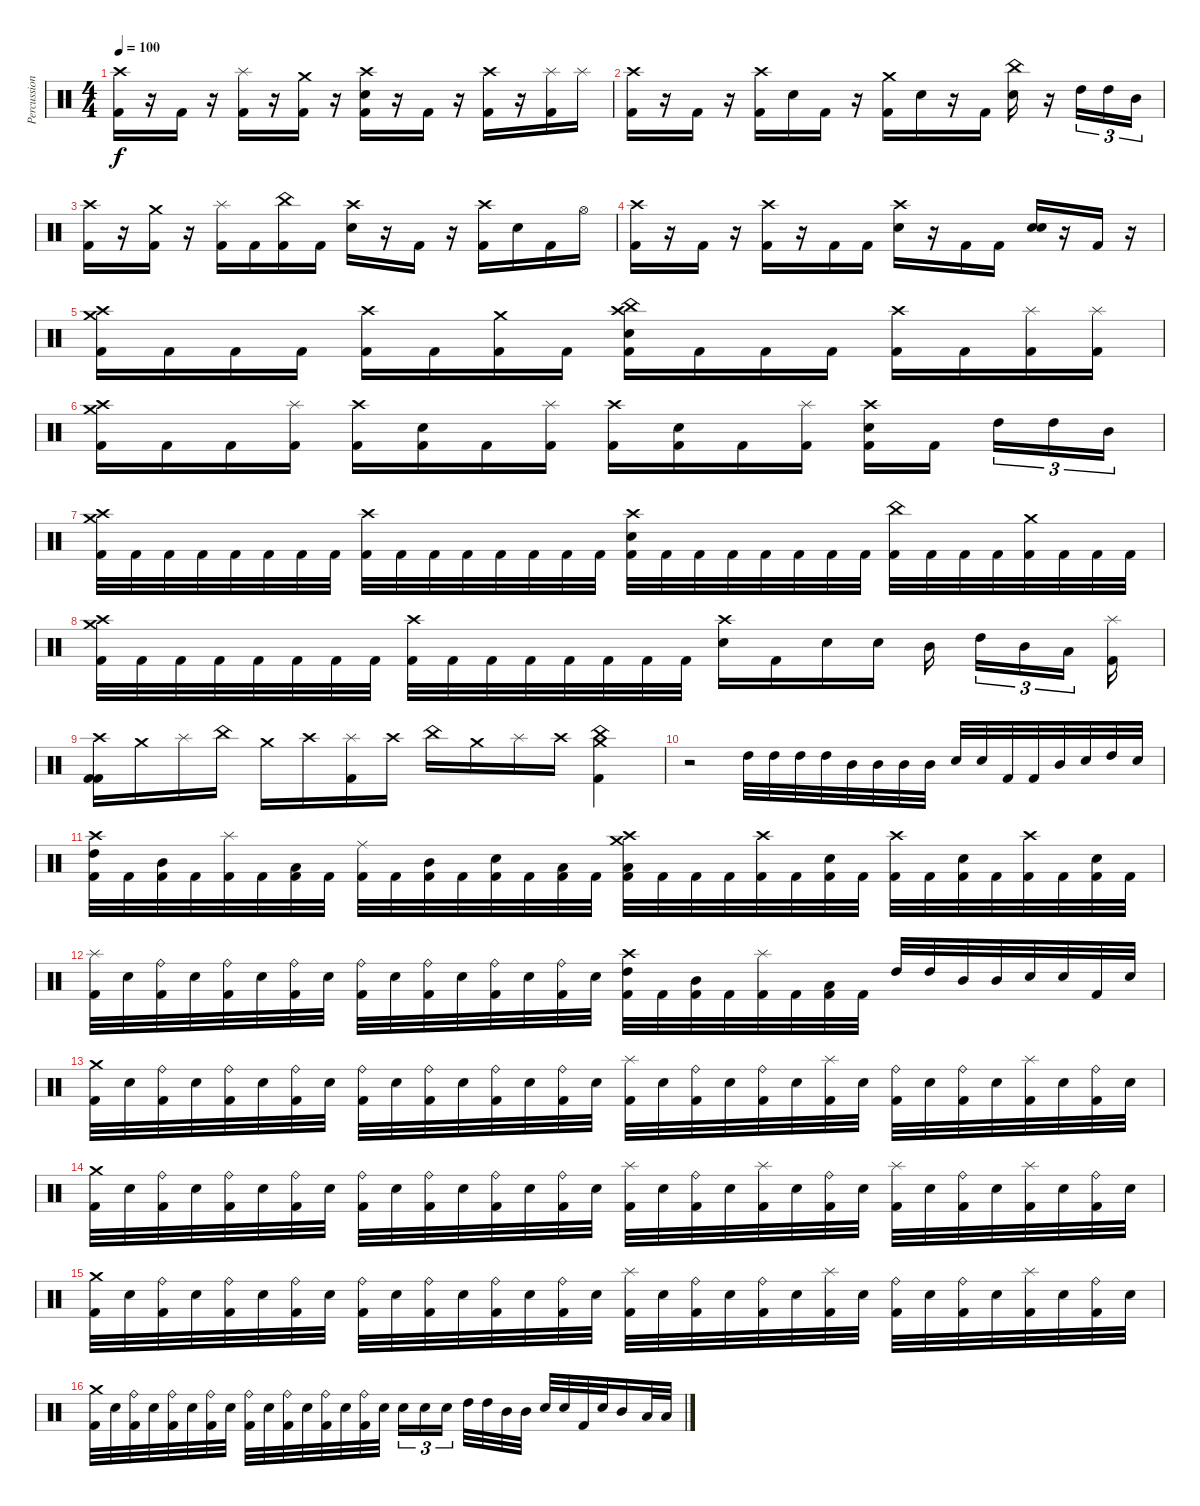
\track ("Percussion" "Percussion") {instrument percussion}
\staff {score}
\articulation defaults
\ts (4 4)
\tempo 100
\clef neutral
\ks c
("Crash high (hit)" "Kick (hit) 2").16{dy f} r.16 "Kick (hit) 2".16 r.16 ("Splash (hit)" "Kick (hit) 2").16 r.16 ("Crash medium (hit)" "Kick (hit) 2").16 r.16 ("Crash high (hit)" "Electric Snare (hit)" "Kick (hit) 2").16 r.16 "Kick (hit) 2".16 r.16 ("Crash high (hit)" "Kick (hit) 2").16 r.16 ("Splash (hit)" "Kick (hit) 2").16 "Splash (hit)".16 |
("Crash high (hit)" "Kick (hit) 2").16 r.16 "Kick (hit) 2".16 r.16 ("Crash high (hit)" "Kick (hit) 2").16 "Electric Snare (hit)".16 "Kick (hit) 2".16 r.16 ("Crash medium (hit)" "Kick (hit) 2").16 "Electric Snare (hit)".16 r.16 "Kick (hit) 2".16 ("China (hit)" "Electric Snare (hit)").16 r.16 "High Tom (hit)".16{tu (3 2)} "High Tom (hit)".16{tu (3 2)} "Mid Tom (hit)".16{tu (3 2)} |
("Crash high (hit)" "Kick (hit) 2").16 r.16 ("Crash medium (hit)" "Kick (hit) 2").16 r.16 ("Splash (hit)" "Kick (hit) 2").16 "Kick (hit) 2".16 ("China (hit)" "Kick (hit) 2").16 "Kick (hit) 2".16 ("Crash high (hit)" "Electric Snare (hit)").16 r.16 "Kick (hit) 2".16 r.16 ("Crash high (hit)" "Kick (hit) 2").16 "Electric Snare (hit)".16 "Kick (hit) 2".16 "Hi-Hat (open)".16 |
("Crash high (hit)" "Kick (hit) 2").16 r.16 "Kick (hit) 2".16 r.16 ("Crash high (hit)" "Kick (hit) 2").16 r.16 "Kick (hit) 2".16 "Kick (hit) 2".16 ("Crash high (hit)" "Electric Snare (hit)").16 r.16 "Kick (hit) 2".16 "Kick (hit) 2".16 ("Electric Snare (hit)" "Electric Snare (hit)").16 r.16 "Kick (hit) 2".16 r.16 |
("Crash high (hit)" "Crash medium (hit)" "Kick (hit) 2").16 "Kick (hit) 2".16 "Kick (hit) 2".16 "Kick (hit) 2".16 ("Crash high (hit)" "Kick (hit) 2").16 "Kick (hit) 2".16 ("Crash medium (hit)" "Kick (hit) 2").16 "Kick (hit) 2".16 ("China (hit)" "Crash high (hit)" "Electric Snare (hit)" "Kick (hit) 2").16 "Kick (hit) 2".16 "Kick (hit) 2".16 "Kick (hit) 2".16 ("Crash high (hit)" "Kick (hit) 2").16 "Kick (hit) 2".16 ("Splash (hit)" "Kick (hit) 2").16 ("Splash (hit)" "Kick (hit) 2").16 |
("Crash medium (hit)" "Crash high (hit)" "Kick (hit) 2").16 "Kick (hit) 2".16 "Kick (hit) 2".16 ("Splash (hit)" "Kick (hit) 2").16 ("Crash high (hit)" "Kick (hit) 2").16 ("Electric Snare (hit)" "Kick (hit) 2").16 "Kick (hit) 2".16 ("Splash (hit)" "Kick (hit) 2").16 ("Crash high (hit)" "Kick (hit) 2").16 ("Electric Snare (hit)" "Kick (hit) 2").16 "Kick (hit) 2".16 ("Splash (hit)" "Kick (hit) 2").16 ("Crash high (hit)" "Electric Snare (hit)" "Kick (hit) 2").16 "Kick (hit) 2".16 "High Tom (hit)".16{tu (3 2)} "High Tom (hit)".16{tu (3 2)} "Mid Tom (hit)".16{tu (3 2)} |
("Crash high (hit)" "Crash medium (hit)" "Kick (hit) 2").32 "Kick (hit) 2".32 "Kick (hit) 2".32 "Kick (hit) 2".32 "Kick (hit) 2".32 "Kick (hit) 2".32 "Kick (hit) 2".32 "Kick (hit) 2".32 ("Crash high (hit)" "Kick (hit) 2").32 "Kick (hit) 2".32 "Kick (hit) 2".32 "Kick (hit) 2".32 "Kick (hit) 2".32 "Kick (hit) 2".32 "Kick (hit) 2".32 "Kick (hit) 2".32 ("Crash high (hit)" "Electric Snare (hit)" "Kick (hit) 2").32 "Kick (hit) 2".32 "Kick (hit) 2".32 "Kick (hit) 2".32 "Kick (hit) 2".32 "Kick (hit) 2".32 "Kick (hit) 2".32 "Kick (hit) 2".32 ("China (hit)" "Kick (hit) 2").32 "Kick (hit) 2".32 "Kick (hit) 2".32 "Kick (hit) 2".32 ("Crash medium (hit)" "Kick (hit) 2").32 "Kick (hit) 2".32 "Kick (hit) 2".32 "Kick (hit) 2".32 |
("Crash high (hit)" "Crash medium (hit)" "Kick (hit) 2").32 "Kick (hit) 2".32 "Kick (hit) 2".32 "Kick (hit) 2".32 "Kick (hit) 2".32 "Kick (hit) 2".32 "Kick (hit) 2".32 "Kick (hit) 2".32 ("Crash high (hit)" "Kick (hit) 2").32 "Kick (hit) 2".32 "Kick (hit) 2".32 "Kick (hit) 2".32 "Kick (hit) 2".32 "Kick (hit) 2".32 "Kick (hit) 2".32 "Kick (hit) 2".32 ("Crash high (hit)" "Electric Snare (hit)").16 "Kick (hit) 2".16 "Electric Snare (hit)".16 "Electric Snare (hit)".16 "Mid Tom (hit)".16 "High Tom (hit)".16{tu (3 2)} "Mid Tom (hit)".16{tu (3 2)} "Low Tom (hit)".16{tu (3 2)} ("Splash (hit)" "Kick (hit) 2").16 |
("Kick (hit) 2" "Crash high (hit)" "Kick (hit) 2").16 "Crash medium (hit)".16 "Splash (hit)".16 "China (hit)".16 "Crash medium (hit)".16 "Crash high (hit)".16 ("Splash (hit)" "Kick (hit) 2").16 "Crash high (hit)".16 "China (hit)".16 "Crash medium (hit)".16 "Splash (hit)".16 "Crash high (hit)".16 ("Crash medium (hit)" "China (hit)" "Kick (hit) 2").4 |
r.2 "High Tom (hit)".32 "High Tom (hit)".32 "High Tom (hit)".32 "High Tom (hit)".32 "Mid Tom (hit)".32 "Mid Tom (hit)".32 "Mid Tom (hit)".32 "Mid Tom (hit)".32 "Electric Snare (hit)".32 "Electric Snare (hit)".32 "Kick (hit) 2".32 "Kick (hit) 2".32 "Mid Tom (hit)".32 "Electric Snare (hit)".32 "High Tom (hit)".32 "Electric Snare (hit)".32 |
("Crash high (hit)" "High Tom (hit)" "Kick (hit) 2").32{volume 13} "Kick (hit) 2".32 ("Mid Tom (hit)" "Kick (hit) 2").32 "Kick (hit) 2".32 ("Splash (hit)" "Kick (hit) 2").32 "Kick (hit) 2".32 ("Low Tom (hit)" "Kick (hit) 2").32 "Kick (hit) 2".32 ("Ride (middle)" "Kick (hit) 2").32 "Kick (hit) 2".32 ("Mid Tom (hit)" "Kick (hit) 2").32 "Kick (hit) 2".32 ("Electric Snare (hit)" "Kick (hit) 2").32 "Kick (hit) 2".32 ("Low Tom (hit)" "Kick (hit) 2").32 "Kick (hit) 2".32 ("Crash high (hit)" "Crash medium (hit)" "Low Floor Tom (hit)" "Kick (hit) 2").32 "Kick (hit) 2".32 "Kick (hit) 2".32 "Kick (hit) 2".32 ("Crash high (hit)" "Kick (hit) 2").32 "Kick (hit) 2".32 ("Electric Snare (hit)" "Kick (hit) 2").32 "Kick (hit) 2".32 ("Crash high (hit)" "Kick (hit) 2").32 "Kick (hit) 2".32 ("Electric Snare (hit)" "Kick (hit) 2").32 "Kick (hit) 2".32 ("Crash high (hit)" "Kick (hit) 2").32 "Kick (hit) 2".32 ("Electric Snare (hit)" "Kick (hit) 2").32 "Kick (hit) 2".32 |
("Splash (hit)" "Kick (hit) 2").32 "Electric Snare (hit)".32 ("Ride (bell)" "Kick (hit) 2").32 "Electric Snare (hit)".32 ("Ride (bell)" "Kick (hit) 2").32 "Electric Snare (hit)".32 ("Ride (bell)" "Kick (hit) 2").32 "Electric Snare (hit)".32 ("Ride (bell)" "Kick (hit) 2").32 "Electric Snare (hit)".32 ("Ride (bell)" "Kick (hit) 2").32 "Electric Snare (hit)".32 ("Ride (bell)" "Kick (hit) 2").32 "Electric Snare (hit)".32 ("Ride (bell)" "Kick (hit) 2").32 "Electric Snare (hit)".32 ("Crash high (hit)" "High Tom (hit)" "Kick (hit) 2").32 "Kick (hit) 2".32 ("Mid Tom (hit)" "Kick (hit) 2").32 "Kick (hit) 2".32 ("Splash (hit)" "Kick (hit) 2").32 "Kick (hit) 2".32 ("Low Tom (hit)" "Kick (hit) 2").32 "Kick (hit) 2".32 "High Tom (hit)".32 "High Tom (hit)".32 "Mid Tom (hit)".32 "Mid Tom (hit)".32 "Electric Snare (hit)".32 "Electric Snare (hit)".32 "Kick (hit) 2".32 "Electric Snare (hit)".32 |
("Crash medium (hit)" "Kick (hit) 2").32 "Electric Snare (hit)".32 ("Ride (bell)" "Kick (hit) 2").32 "Electric Snare (hit)".32 ("Ride (bell)" "Kick (hit) 2").32 "Electric Snare (hit)".32 ("Ride (bell)" "Kick (hit) 2").32 "Electric Snare (hit)".32 ("Ride (bell)" "Kick (hit) 2").32 "Electric Snare (hit)".32 ("Ride (bell)" "Kick (hit) 2").32 "Electric Snare (hit)".32 ("Ride (bell)" "Kick (hit) 2").32 "Electric Snare (hit)".32 ("Ride (bell)" "Kick (hit) 2").32 "Electric Snare (hit)".32 ("Splash (hit)" "Kick (hit) 2").32 "Electric Snare (hit)".32 ("Ride (bell)" "Kick (hit) 2").32 "Electric Snare (hit)".32 ("Ride (bell)" "Kick (hit) 2").32 "Electric Snare (hit)".32 ("Splash (hit)" "Kick (hit) 2").32 "Electric Snare (hit)".32 ("Ride (bell)" "Kick (hit) 2").32 "Electric Snare (hit)".32 ("Ride (bell)" "Kick (hit) 2").32 "Electric Snare (hit)".32 ("Splash (hit)" "Kick (hit) 2").32 "Electric Snare (hit)".32 ("Ride (bell)" "Kick (hit) 2").32 "Electric Snare (hit)".32 |
("Crash medium (hit)" "Kick (hit) 2").32 "Electric Snare (hit)".32 ("Ride (bell)" "Kick (hit) 2").32 "Electric Snare (hit)".32 ("Ride (bell)" "Kick (hit) 2").32 "Electric Snare (hit)".32 ("Ride (bell)" "Kick (hit) 2").32 "Electric Snare (hit)".32 ("Ride (bell)" "Kick (hit) 2").32 "Electric Snare (hit)".32 ("Ride (bell)" "Kick (hit) 2").32 "Electric Snare (hit)".32 ("Ride (bell)" "Kick (hit) 2").32 "Electric Snare (hit)".32 ("Ride (bell)" "Kick (hit) 2").32 "Electric Snare (hit)".32 ("Splash (hit)" "Kick (hit) 2").32 "Electric Snare (hit)".32 ("Ride (bell)" "Kick (hit) 2").32 "Electric Snare (hit)".32 ("Splash (hit)" "Kick (hit) 2").32 "Electric Snare (hit)".32 ("Ride (bell)" "Kick (hit) 2").32 "Electric Snare (hit)".32 ("Splash (hit)" "Kick (hit) 2").32 "Electric Snare (hit)".32 ("Ride (bell)" "Kick (hit) 2").32 "Electric Snare (hit)".32 ("Splash (hit)" "Kick (hit) 2").32 "Electric Snare (hit)".32 ("Ride (bell)" "Kick (hit) 2").32 "Electric Snare (hit)".32 |
("Crash medium (hit)" "Kick (hit) 2").32 "Electric Snare (hit)".32 ("Ride (bell)" "Kick (hit) 2").32 "Electric Snare (hit)".32 ("Ride (bell)" "Kick (hit) 2").32 "Electric Snare (hit)".32 ("Ride (bell)" "Kick (hit) 2").32 "Electric Snare (hit)".32 ("Ride (bell)" "Kick (hit) 2").32 "Electric Snare (hit)".32 ("Ride (bell)" "Kick (hit) 2").32 "Electric Snare (hit)".32 ("Ride (bell)" "Kick (hit) 2").32 "Electric Snare (hit)".32 ("Ride (bell)" "Kick (hit) 2").32 "Electric Snare (hit)".32 ("Splash (hit)" "Kick (hit) 2").32 "Electric Snare (hit)".32 ("Ride (bell)" "Kick (hit) 2").32 "Electric Snare (hit)".32 ("Ride (bell)" "Kick (hit) 2").32 "Electric Snare (hit)".32 ("Splash (hit)" "Kick (hit) 2").32 "Electric Snare (hit)".32 ("Ride (bell)" "Kick (hit) 2").32 "Electric Snare (hit)".32 ("Ride (bell)" "Kick (hit) 2").32 "Electric Snare (hit)".32 ("Splash (hit)" "Kick (hit) 2").32 "Electric Snare (hit)".32 ("Ride (bell)" "Kick (hit) 2").32 "Electric Snare (hit)".32 |
("Crash medium (hit)" "Kick (hit) 2").32 "Electric Snare (hit)".32 ("Ride (bell)" "Kick (hit) 2").32 "Electric Snare (hit)".32 ("Ride (bell)" "Kick (hit) 2").32 "Electric Snare (hit)".32 ("Ride (bell)" "Kick (hit) 2").32 "Electric Snare (hit)".32 ("Ride (bell)" "Kick (hit) 2").32 "Electric Snare (hit)".32 ("Ride (bell)" "Kick (hit) 2").32 "Electric Snare (hit)".32 ("Ride (bell)" "Kick (hit) 2").32 "Electric Snare (hit)".32 ("Ride (bell)" "Kick (hit) 2").32 "Electric Snare (hit)".32 "Electric Snare (hit)".16{tu (3 2)} "Electric Snare (hit)".16{tu (3 2)} "Electric Snare (hit)".16{tu (3 2)} "High Tom (hit)".32 "High Tom (hit)".32 "Mid Tom (hit)".32 "Mid Tom (hit)".32 "Electric Snare (hit)".32 "Electric Snare (hit)".32 "Kick (hit) 2".32 "Electric Snare (hit)".32 "Mid Tom (hit)".16 "Low Tom (hit)".32 "Low Tom (hit)".32
